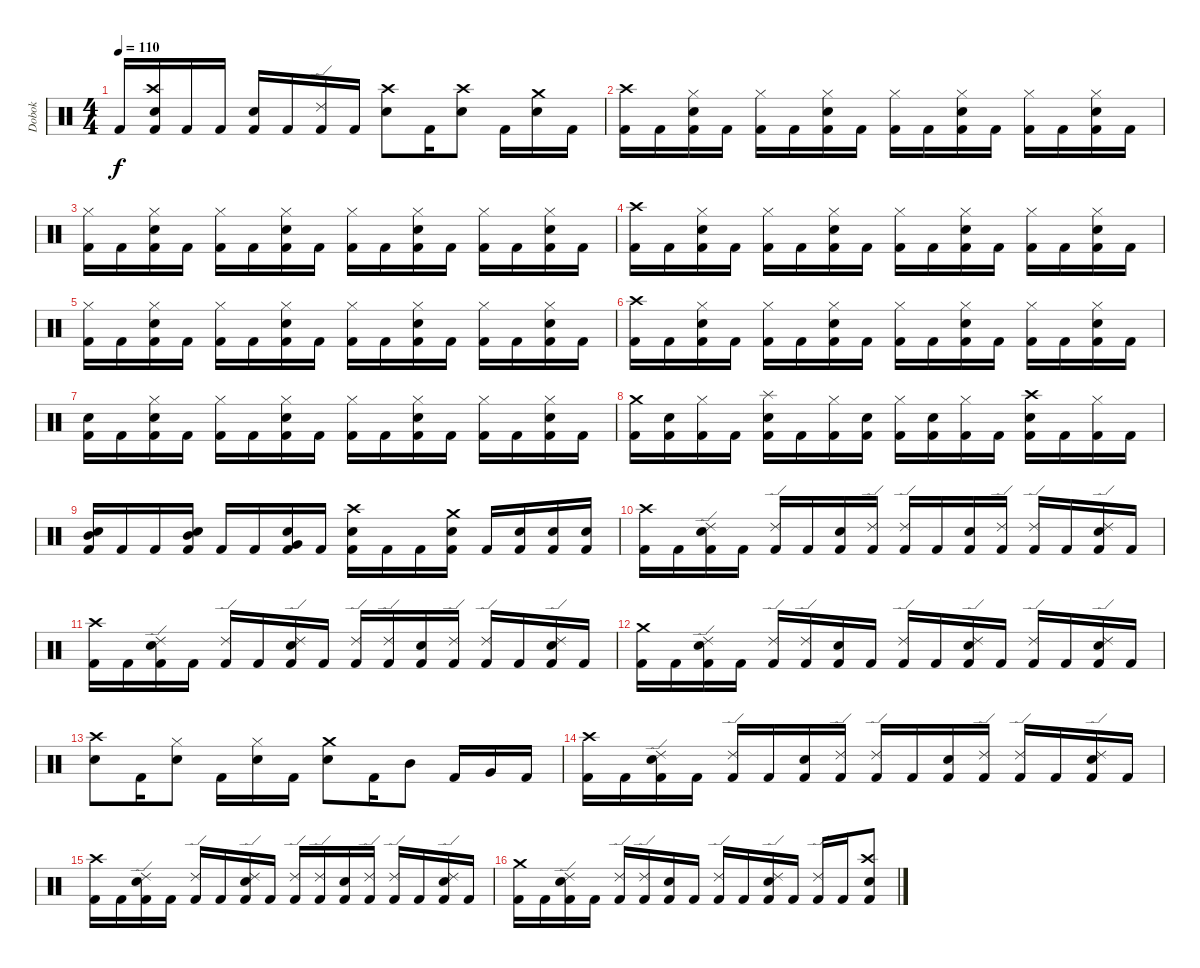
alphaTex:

\track ("Dobok" "Dobok") {instrument percussion}
\staff {score}
\articulation defaults
\ts (4 4)
\tempo 110
\clef neutral
\ks c "Kick (hit) 2".16{dy f}
("Crash high (hit)" "Snare (hit) 2" "Kick (hit) 2").16 "Kick (hit) 2".16 "Kick (hit) 2".16 ("Snare (hit) 2" "Kick (hit) 2").16 "Kick (hit) 2".16 ("Ride (edge) 2" "Kick (hit) 2").16 "Kick (hit) 2".16 ("Crash high (hit)" "Snare (hit) 2").8 "Kick (hit) 2".16 ("Crash high (hit)" "Snare (hit) 2").8 "Kick (hit) 2".16 ("Crash medium (hit)" "Snare (hit) 2").16 "Kick (hit) 2".16 |
("Crash high (hit)" "Kick (hit) 2").16 "Kick (hit) 2".16 ("Hi-Hat (closed)" "Snare (hit) 2" "Kick (hit) 2").16 "Kick (hit) 2".16 ("Hi-Hat (closed)" "Kick (hit) 2").16 "Kick (hit) 2".16 ("Hi-Hat (closed)" "Snare (hit) 2" "Kick (hit) 2").16 "Kick (hit) 2".16 ("Hi-Hat (closed)" "Kick (hit) 2").16 "Kick (hit) 2".16 ("Hi-Hat (closed)" "Snare (hit) 2" "Kick (hit) 2").16 "Kick (hit) 2".16 ("Hi-Hat (closed)" "Kick (hit) 2").16 "Kick (hit) 2".16 ("Hi-Hat (closed)" "Snare (hit) 2" "Kick (hit) 2").16 "Kick (hit) 2".16 |
("Hi-Hat (closed)" "Kick (hit) 2").16 "Kick (hit) 2".16 ("Hi-Hat (closed)" "Snare (hit) 2" "Kick (hit) 2").16 "Kick (hit) 2".16 ("Hi-Hat (closed)" "Kick (hit) 2").16 "Kick (hit) 2".16 ("Hi-Hat (closed)" "Snare (hit) 2" "Kick (hit) 2").16 "Kick (hit) 2".16 ("Hi-Hat (closed)" "Kick (hit) 2").16 "Kick (hit) 2".16 ("Hi-Hat (closed)" "Snare (hit) 2" "Kick (hit) 2").16 "Kick (hit) 2".16 ("Hi-Hat (closed)" "Kick (hit) 2").16 "Kick (hit) 2".16 ("Hi-Hat (closed)" "Snare (hit) 2" "Kick (hit) 2").16 "Kick (hit) 2".16 |
("Crash high (hit)" "Kick (hit) 2").16 "Kick (hit) 2".16 ("Hi-Hat (closed)" "Snare (hit) 2" "Kick (hit) 2").16 "Kick (hit) 2".16 ("Hi-Hat (closed)" "Kick (hit) 2").16 "Kick (hit) 2".16 ("Hi-Hat (closed)" "Snare (hit) 2" "Kick (hit) 2").16 "Kick (hit) 2".16 ("Hi-Hat (closed)" "Kick (hit) 2").16 "Kick (hit) 2".16 ("Hi-Hat (closed)" "Snare (hit) 2" "Kick (hit) 2").16 "Kick (hit) 2".16 ("Hi-Hat (closed)" "Kick (hit) 2").16 "Kick (hit) 2".16 ("Hi-Hat (closed)" "Snare (hit) 2" "Kick (hit) 2").16 "Kick (hit) 2".16 |
("Hi-Hat (closed)" "Kick (hit) 2").16 "Kick (hit) 2".16 ("Hi-Hat (closed)" "Snare (hit) 2" "Kick (hit) 2").16 "Kick (hit) 2".16 ("Hi-Hat (closed)" "Kick (hit) 2").16 "Kick (hit) 2".16 ("Hi-Hat (closed)" "Snare (hit) 2" "Kick (hit) 2").16 "Kick (hit) 2".16 ("Hi-Hat (closed)" "Kick (hit) 2").16 "Kick (hit) 2".16 ("Hi-Hat (closed)" "Snare (hit) 2" "Kick (hit) 2").16 "Kick (hit) 2".16 ("Hi-Hat (closed)" "Kick (hit) 2").16 "Kick (hit) 2".16 ("Hi-Hat (closed)" "Snare (hit) 2" "Kick (hit) 2").16 "Kick (hit) 2".16 |
("Crash high (hit)" "Kick (hit) 2").16 "Kick (hit) 2".16 ("Hi-Hat (closed)" "Snare (hit) 2" "Kick (hit) 2").16 "Kick (hit) 2".16 ("Hi-Hat (closed)" "Kick (hit) 2").16 "Kick (hit) 2".16 ("Hi-Hat (closed)" "Snare (hit) 2" "Kick (hit) 2").16 "Kick (hit) 2".16 ("Hi-Hat (closed)" "Kick (hit) 2").16 "Kick (hit) 2".16 ("Hi-Hat (closed)" "Snare (hit) 2" "Kick (hit) 2").16 "Kick (hit) 2".16 ("Hi-Hat (closed)" "Kick (hit) 2").16 "Kick (hit) 2".16 ("Hi-Hat (closed)" "Snare (hit) 2" "Kick (hit) 2").16 "Kick (hit) 2".16 |
("Snare (hit)" "Kick (hit) 2").16 "Kick (hit) 2".16 ("Hi-Hat (closed)" "Snare (hit) 2" "Kick (hit) 2").16 "Kick (hit) 2".16 ("Hi-Hat (closed)" "Kick (hit) 2").16 "Kick (hit) 2".16 ("Hi-Hat (closed)" "Snare (hit) 2" "Kick (hit) 2").16 "Kick (hit) 2".16 ("Hi-Hat (closed)" "Kick (hit) 2").16 "Kick (hit) 2".16 ("Hi-Hat (closed)" "Snare (hit) 2" "Kick (hit) 2").16 "Kick (hit) 2".16 ("Hi-Hat (closed)" "Kick (hit) 2").16 "Kick (hit) 2".16 ("Hi-Hat (closed)" "Snare (hit) 2" "Kick (hit) 2").16 "Kick (hit) 2".16 |
("Crash medium (hit)" "Kick (hit) 2").16 ("Snare (hit) 2" "Kick (hit) 2").16 ("Hi-Hat (closed)" "Kick (hit) 2").16 "Kick (hit) 2".16 ("Splash (hit)" "Snare (hit) 2" "Kick (hit) 2").16 "Kick (hit) 2".16 ("Hi-Hat (closed)" "Kick (hit) 2").16 ("Snare (hit) 2" "Kick (hit) 2").16 ("Hi-Hat (closed)" "Kick (hit) 2").16 ("Snare (hit) 2" "Kick (hit) 2").16 ("Hi-Hat (closed)" "Kick (hit) 2").16 "Kick (hit) 2".16 ("Crash high (hit)" "Snare (hit) 2" "Kick (hit) 2").16 "Kick (hit) 2".16 ("Hi-Hat (closed)" "Kick (hit) 2").16 "Kick (hit) 2".16 |
("Snare (hit) 2" "Mid Tom (hit)" "Kick (hit) 2").16 "Kick (hit) 2".16 "Kick (hit) 2".16 ("Snare (hit) 2" "Mid Tom (hit)" "Kick (hit) 2").16 "Kick (hit) 2".16 "Kick (hit) 2".16 ("Snare (hit) 2" "Very Low Tom (hit)" "Kick (hit) 2").16 "Kick (hit) 2".16 ("Crash high (hit)" "Snare (hit) 2" "Kick (hit) 2").16 "Kick (hit) 2".16 "Kick (hit) 2".16 ("Crash medium (hit)" "Snare (hit) 2" "Kick (hit) 2").16 "Kick (hit) 2".16 ("Snare (hit) 2" "Kick (hit) 2").16 ("Snare (hit) 2" "Kick (hit) 2").16 ("Snare (hit) 2" "Kick (hit) 2").16 |
("Crash high (hit)" "Kick (hit) 2").16 "Kick (hit) 2".16 ("Ride (edge) 2" "Snare (hit) 2" "Kick (hit) 2").16 "Kick (hit) 2".16 ("Ride (edge) 2" "Kick (hit) 2").16 "Kick (hit) 2".16 ("Snare (hit) 2" "Kick (hit) 2").16 ("Ride (edge) 2" "Kick (hit) 2").16 ("Ride (edge) 2" "Kick (hit) 2").16 "Kick (hit) 2".16 ("Snare (hit) 2" "Kick (hit) 2").16 ("Ride (edge) 2" "Kick (hit) 2").16 ("Ride (edge) 2" "Kick (hit) 2").16 "Kick (hit) 2".16 ("Ride (edge) 2" "Snare (hit) 2" "Kick (hit) 2").16 "Kick (hit) 2".16 |
("Crash high (hit)" "Kick (hit) 2").16 "Kick (hit) 2".16 ("Ride (edge) 2" "Snare (hit) 2" "Kick (hit) 2").16 "Kick (hit) 2".16 ("Ride (edge) 2" "Kick (hit) 2").16 "Kick (hit) 2".16 ("Ride (edge) 2" "Snare (hit) 2" "Kick (hit) 2").16 "Kick (hit) 2".16 ("Ride (edge) 2" "Kick (hit) 2").16 ("Ride (edge) 2" "Kick (hit) 2").16 ("Snare (hit) 2" "Kick (hit) 2").16 ("Ride (edge) 2" "Kick (hit) 2").16 ("Ride (edge) 2" "Kick (hit) 2").16 "Kick (hit) 2".16 ("Ride (edge) 2" "Snare (hit) 2" "Kick (hit) 2").16 "Kick (hit) 2".16 |
("Crash medium (hit)" "Kick (hit) 2").16 "Kick (hit) 2".16 ("Ride (edge) 2" "Snare (hit) 2" "Kick (hit) 2").16 "Kick (hit) 2".16 ("Ride (edge) 2" "Kick (hit) 2").16 ("Ride (edge) 2" "Kick (hit) 2").16 ("Snare (hit) 2" "Kick (hit) 2").16 "Kick (hit) 2".16 ("Ride (edge) 2" "Kick (hit) 2").16 "Kick (hit) 2".16 ("Ride (edge) 2" "Snare (hit) 2" "Kick (hit) 2").16 "Kick (hit) 2".16 ("Ride (edge) 2" "Kick (hit) 2").16 "Kick (hit) 2".16 ("Ride (edge) 2" "Snare (hit) 2" "Kick (hit) 2").16 "Kick (hit) 2".16 |
("Crash high (hit)" "Snare (hit) 2").8 "Kick (hit) 2".16 ("Hi-Hat (closed)" "Snare (hit) 2").8 "Kick (hit) 2".16 ("Hi-Hat (closed)" "Snare (hit) 2").16 "Kick (hit) 2".16 ("Crash medium (hit)" "Snare (hit) 2").8 "Kick (hit) 2".16 "Mid Tom (hit)".8 "Kick (hit) 2".16 "Very Low Tom (hit)".16 "Kick (hit) 2".16 |
("Crash high (hit)" "Kick (hit) 2").16 "Kick (hit) 2".16 ("Ride (edge) 2" "Snare (hit) 2" "Kick (hit) 2").16 "Kick (hit) 2".16 ("Ride (edge) 2" "Kick (hit) 2").16 "Kick (hit) 2".16 ("Snare (hit) 2" "Kick (hit) 2").16 ("Ride (edge) 2" "Kick (hit) 2").16 ("Ride (edge) 2" "Kick (hit) 2").16 "Kick (hit) 2".16 ("Snare (hit) 2" "Kick (hit) 2").16 ("Ride (edge) 2" "Kick (hit) 2").16 ("Ride (edge) 2" "Kick (hit) 2").16 "Kick (hit) 2".16 ("Ride (edge) 2" "Snare (hit) 2" "Kick (hit) 2").16 "Kick (hit) 2".16 |
("Crash high (hit)" "Kick (hit) 2").16 "Kick (hit) 2".16 ("Ride (edge) 2" "Snare (hit) 2" "Kick (hit) 2").16 "Kick (hit) 2".16 ("Ride (edge) 2" "Kick (hit) 2").16 "Kick (hit) 2".16 ("Ride (edge) 2" "Snare (hit) 2" "Kick (hit) 2").16 "Kick (hit) 2".16 ("Ride (edge) 2" "Kick (hit) 2").16 ("Ride (edge) 2" "Kick (hit) 2").16 ("Snare (hit) 2" "Kick (hit) 2").16 ("Ride (edge) 2" "Kick (hit) 2").16 ("Ride (edge) 2" "Kick (hit) 2").16 "Kick (hit) 2".16 ("Ride (edge) 2" "Snare (hit) 2" "Kick (hit) 2").16 "Kick (hit) 2".16 |
("Crash medium (hit)" "Kick (hit) 2").16 "Kick (hit) 2".16 ("Ride (edge) 2" "Snare (hit) 2" "Kick (hit) 2").16 "Kick (hit) 2".16 ("Ride (edge) 2" "Kick (hit) 2").16 ("Ride (edge) 2" "Kick (hit) 2").16 ("Snare (hit) 2" "Kick (hit) 2").16 "Kick (hit) 2".16 ("Ride (edge) 2" "Kick (hit) 2").16 "Kick (hit) 2".16 ("Ride (edge) 2" "Snare (hit) 2" "Kick (hit) 2").16 "Kick (hit) 2".16 ("Ride (edge) 2" "Kick (hit) 2").16 "Kick (hit) 2".16 ("Crash high (hit)" "Snare (hit) 2" "Kick (hit) 2").8
